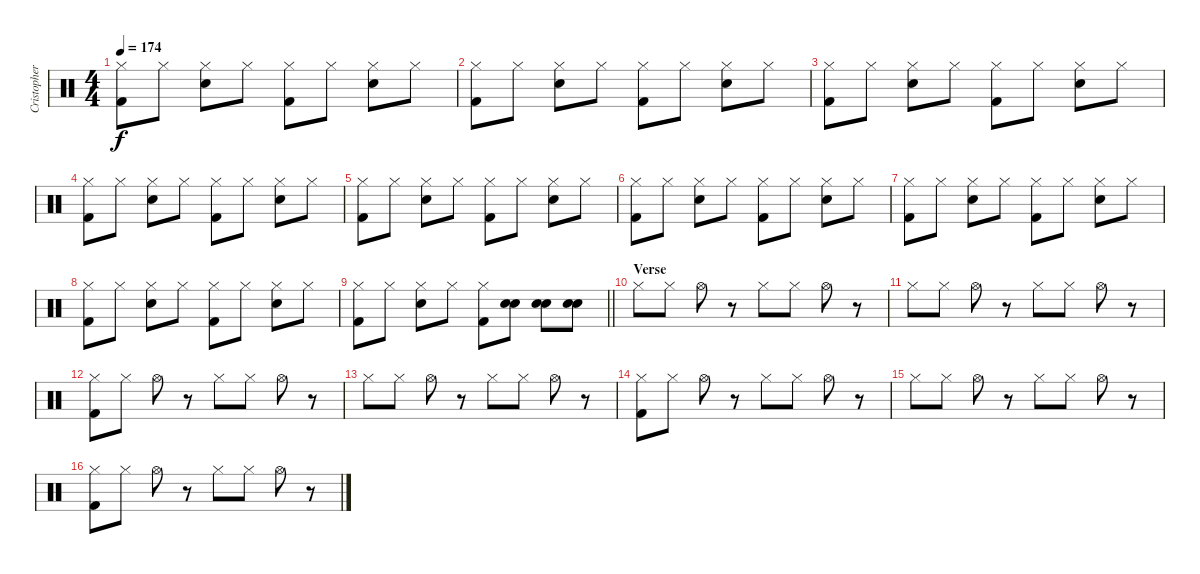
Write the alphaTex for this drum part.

\track ("Cristopher S. (Drums)" "Cristopher") {instrument percussion}
\staff {score}
\articulation defaults
\ts (4 4)
\tempo 174
\clef neutral
\ks c
("Kick (hit) 2" "Hi-Hat (closed)").8{dy f} "Hi-Hat (closed)".8 ("Electric Snare (hit)" "Hi-Hat (closed)").8 "Hi-Hat (closed)".8 ("Kick (hit) 2" "Hi-Hat (closed)").8 "Hi-Hat (closed)".8 ("Electric Snare (hit)" "Hi-Hat (closed)").8 "Hi-Hat (closed)".8 |
("Kick (hit) 2" "Hi-Hat (closed)").8 "Hi-Hat (closed)".8 ("Electric Snare (hit)" "Hi-Hat (closed)").8 "Hi-Hat (closed)".8 ("Kick (hit) 2" "Hi-Hat (closed)").8 "Hi-Hat (closed)".8 ("Electric Snare (hit)" "Hi-Hat (closed)").8 "Hi-Hat (closed)".8 |
("Kick (hit) 2" "Hi-Hat (closed)").8 "Hi-Hat (closed)".8 ("Electric Snare (hit)" "Hi-Hat (closed)").8 "Hi-Hat (closed)".8 ("Kick (hit) 2" "Hi-Hat (closed)").8 "Hi-Hat (closed)".8 ("Electric Snare (hit)" "Hi-Hat (closed)").8 "Hi-Hat (closed)".8 |
("Kick (hit) 2" "Hi-Hat (closed)").8 "Hi-Hat (closed)".8 ("Electric Snare (hit)" "Hi-Hat (closed)").8 "Hi-Hat (closed)".8 ("Kick (hit) 2" "Hi-Hat (closed)").8 "Hi-Hat (closed)".8 ("Electric Snare (hit)" "Hi-Hat (closed)").8 "Hi-Hat (closed)".8 |
("Kick (hit) 2" "Hi-Hat (closed)").8 "Hi-Hat (closed)".8 ("Electric Snare (hit)" "Hi-Hat (closed)").8 "Hi-Hat (closed)".8 ("Kick (hit) 2" "Hi-Hat (closed)").8 "Hi-Hat (closed)".8 ("Electric Snare (hit)" "Hi-Hat (closed)").8 "Hi-Hat (closed)".8 |
("Kick (hit) 2" "Hi-Hat (closed)").8 "Hi-Hat (closed)".8 ("Electric Snare (hit)" "Hi-Hat (closed)").8 "Hi-Hat (closed)".8 ("Kick (hit) 2" "Hi-Hat (closed)").8 "Hi-Hat (closed)".8 ("Electric Snare (hit)" "Hi-Hat (closed)").8 "Hi-Hat (closed)".8 |
("Kick (hit) 2" "Hi-Hat (closed)").8 "Hi-Hat (closed)".8 ("Electric Snare (hit)" "Hi-Hat (closed)").8 "Hi-Hat (closed)".8 ("Kick (hit) 2" "Hi-Hat (closed)").8 "Hi-Hat (closed)".8 ("Electric Snare (hit)" "Hi-Hat (closed)").8 "Hi-Hat (closed)".8 |
("Kick (hit) 2" "Hi-Hat (closed)").8 "Hi-Hat (closed)".8 ("Electric Snare (hit)" "Hi-Hat (closed)").8 "Hi-Hat (closed)".8 ("Kick (hit) 2" "Hi-Hat (closed)").8 "Hi-Hat (closed)".8 ("Electric Snare (hit)" "Hi-Hat (closed)").8 "Hi-Hat (closed)".8 |
\barLineRight lightlight
("Kick (hit) 2" "Hi-Hat (closed)").8 "Hi-Hat (closed)".8 ("Electric Snare (hit)" "Hi-Hat (closed)").8 "Hi-Hat (closed)".8 ("Kick (hit) 2" "Hi-Hat (closed)").8 ("Electric Snare (hit)" "Electric Snare (hit)").8 ("Electric Snare (hit)" "Electric Snare (hit)").8 ("Electric Snare (hit)" "Electric Snare (hit)").8 |
\section ("" "Verse")
"Hi-Hat (closed)".8 "Hi-Hat (closed)".8 "Hi-Hat (open)".8 r.8 "Hi-Hat (closed)".8 "Hi-Hat (closed)".8 "Hi-Hat (open)".8 r.8 |
"Hi-Hat (closed)".8 "Hi-Hat (closed)".8 "Hi-Hat (open)".8 r.8 "Hi-Hat (closed)".8 "Hi-Hat (closed)".8 "Hi-Hat (open)".8 r.8 |
("Hi-Hat (closed)" "Kick (hit) 2").8 "Hi-Hat (closed)".8 "Hi-Hat (open)".8 r.8 "Hi-Hat (closed)".8 "Hi-Hat (closed)".8 "Hi-Hat (open)".8 r.8 |
"Hi-Hat (closed)".8 "Hi-Hat (closed)".8 "Hi-Hat (open)".8 r.8 "Hi-Hat (closed)".8 "Hi-Hat (closed)".8 "Hi-Hat (open)".8 r.8 |
("Hi-Hat (closed)" "Kick (hit) 2").8 "Hi-Hat (closed)".8 "Hi-Hat (open)".8 r.8 "Hi-Hat (closed)".8 "Hi-Hat (closed)".8 "Hi-Hat (open)".8 r.8 |
"Hi-Hat (closed)".8 "Hi-Hat (closed)".8 "Hi-Hat (open)".8 r.8 "Hi-Hat (closed)".8 "Hi-Hat (closed)".8 "Hi-Hat (open)".8 r.8 |
("Hi-Hat (closed)" "Kick (hit) 2").8 "Hi-Hat (closed)".8 "Hi-Hat (open)".8 r.8 "Hi-Hat (closed)".8 "Hi-Hat (closed)".8 "Hi-Hat (open)".8 r.8
